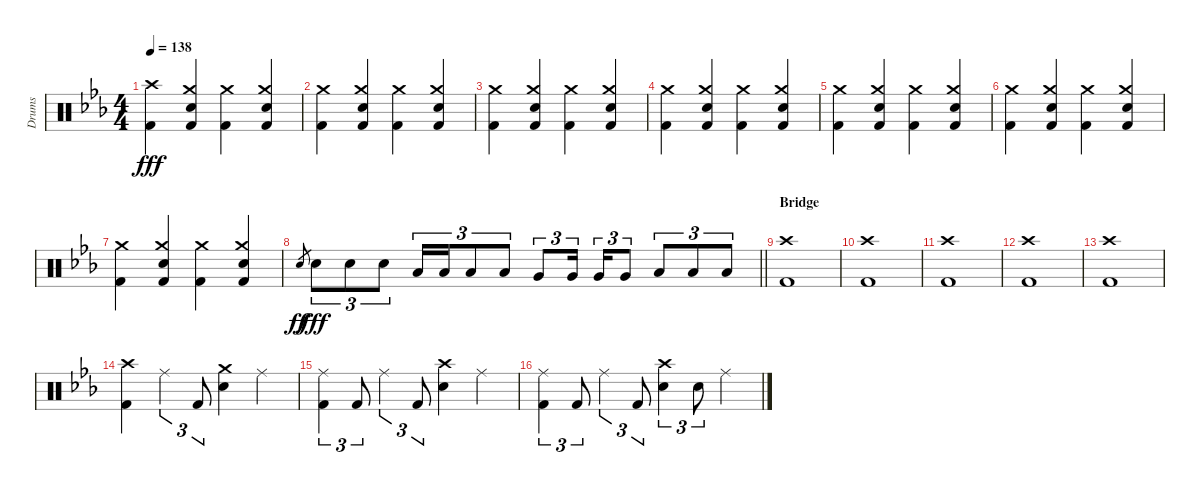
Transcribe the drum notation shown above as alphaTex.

\track ("Drums" "Drums") {instrument percussion}
\staff {score}
\articulation defaults
\ts (4 4)
\tempo 138
\clef neutral
\ks eb
("Crash high (hit)" "Kick (hit) 2").4{dy fff} ("Crash medium (hit)" "Snare (hit) 2" "Kick (hit) 2").4 ("Crash medium (hit)" "Kick (hit) 2").4 ("Crash medium (hit)" "Snare (hit) 2" "Kick (hit) 2").4 |
("Crash medium (hit)" "Kick (hit) 2").4 ("Crash medium (hit)" "Snare (hit) 2" "Kick (hit) 2").4 ("Crash medium (hit)" "Kick (hit) 2").4 ("Crash medium (hit)" "Snare (hit) 2" "Kick (hit) 2").4 |
("Crash medium (hit)" "Kick (hit) 2").4 ("Crash medium (hit)" "Snare (hit) 2" "Kick (hit) 2").4 ("Crash medium (hit)" "Kick (hit) 2").4 ("Crash medium (hit)" "Snare (hit) 2" "Kick (hit) 2").4 |
("Crash medium (hit)" "Kick (hit) 2").4 ("Crash medium (hit)" "Snare (hit) 2" "Kick (hit) 2").4 ("Crash medium (hit)" "Kick (hit) 2").4 ("Crash medium (hit)" "Snare (hit) 2" "Kick (hit) 2").4 |
("Crash medium (hit)" "Kick (hit) 2").4 ("Crash medium (hit)" "Snare (hit) 2" "Kick (hit) 2").4 ("Crash medium (hit)" "Kick (hit) 2").4 ("Crash medium (hit)" "Snare (hit) 2" "Kick (hit) 2").4 |
("Crash medium (hit)" "Kick (hit) 2").4 ("Crash medium (hit)" "Snare (hit) 2" "Kick (hit) 2").4 ("Crash medium (hit)" "Kick (hit) 2").4 ("Crash medium (hit)" "Snare (hit) 2" "Kick (hit) 2").4 |
("Crash medium (hit)" "Kick (hit) 2").4 ("Crash medium (hit)" "Snare (hit) 2" "Kick (hit) 2").4 ("Crash medium (hit)" "Kick (hit) 2").4 ("Crash medium (hit)" "Snare (hit) 2" "Kick (hit) 2").4 |
\barLineRight lightlight "Snare (hit)".8{gr dy ff} "Snare (hit) 2".8{tu (3 2) dy fff} "Snare (hit) 2".8{tu (3 2)} "Snare (hit) 2".8{tu (3 2)} "Low Tom (hit)".16{tu (3 2)} "Low Tom (hit)".16{tu (3 2)} "Low Tom (hit)".8{tu (3 2)} "Low Tom (hit)".8{tu (3 2)} "Very Low Tom (hit)".8{tu (3 2)} "Very Low Tom (hit)".16{tu (3 2)} "Very Low Tom (hit)".16{tu (3 2)} "Very Low Tom (hit)".8{tu (3 2)} "Low Floor Tom (hit)".8{tu (3 2)} "Low Floor Tom (hit)".8{tu (3 2)} "Low Floor Tom (hit)".8{tu (3 2)}
|
\section ("" "Bridge")
("Crash high (hit)" "Kick (hit) 2").1 |
("Crash high (hit)" "Kick (hit) 2").1 |
("Crash high (hit)" "Kick (hit) 2").1 |
("Crash high (hit)" "Kick (hit) 2").1 |
("Crash high (hit)" "Kick (hit) 2").1 |
("Crash high (hit)" "Kick (hit) 2").4 "Ride (middle)".4{tu (3 2)} "Kick (hit) 2".8{tu (3 2)} ("Crash medium (hit)" "Snare (hit) 2").4 "Ride (middle)".4 |
("Ride (middle)" "Kick (hit) 2").4{tu (3 2)} "Kick (hit) 2".8{tu (3 2)} "Ride (middle)".4{tu (3 2)} "Kick (hit) 2".8{tu (3 2)} ("Crash high (hit)" "Snare (hit) 2").4 "Ride (middle)".4 |
("Ride (middle)" "Kick (hit) 2").4{tu (3 2)} "Kick (hit) 2".8{tu (3 2)} "Ride (middle)".4{tu (3 2)} "Kick (hit) 2".8{tu (3 2)} ("Crash high (hit)" "Snare (hit) 2").4{tu (3 2)} "Snare (hit) 2".8{tu (3 2)} "Ride (middle)".4
